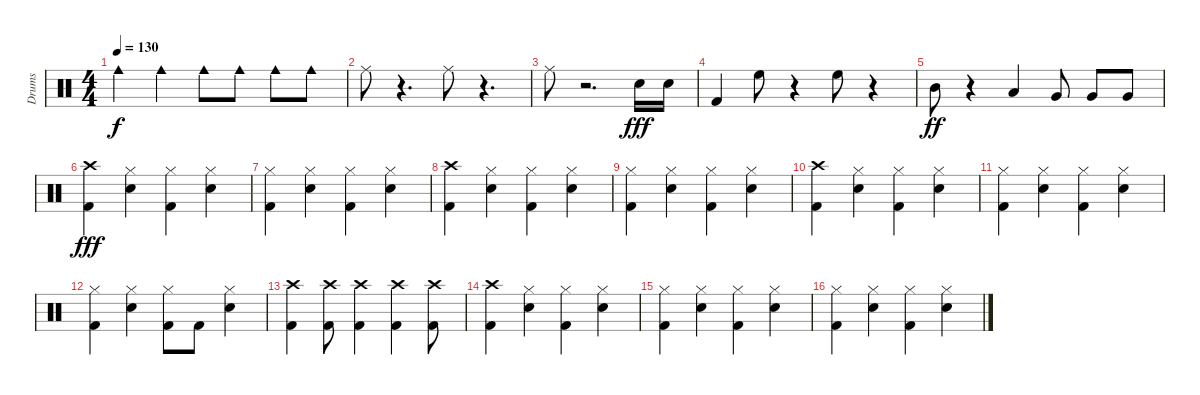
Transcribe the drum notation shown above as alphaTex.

\track ("Drums" "Drums") {instrument percussion}
\staff {score}
\articulation defaults
\ts (4 4)
\tempo 130
\clef neutral
\ks c "Cowbell medium (hit)".4{dy f} "Cowbell medium (hit)".4 "Cowbell medium (hit)".8 "Cowbell medium (hit)".8 "Cowbell medium (hit)".8 "Cowbell medium (hit)".8
|
"Ride (middle)".8 r.4{d} "Ride (middle)".8 r.4{d} |
"Ride (middle)".8 r.2{d} "Snare (hit) 2".16{dy fff} "Snare (hit) 2".16 |
"Kick (hit) 2".4 "High Floor Tom (hit)".8 r.4 "High Floor Tom (hit)".8 r.4 |
"Mid Tom (hit)".8{dy ff} r.4 "Low Tom (hit)".4 "Very Low Tom (hit)".8 "Very Low Tom (hit)".8 "Very Low Tom (hit)".8 |
("Kick (hit) 2" "Crash high (hit)").4{dy fff} ("Hi-Hat (closed)" "Snare (hit) 2").4 ("Kick (hit) 2" "Hi-Hat (closed)").4 ("Hi-Hat (closed)" "Snare (hit) 2").4 |
("Kick (hit) 2" "Hi-Hat (closed)").4 ("Hi-Hat (closed)" "Snare (hit) 2").4 ("Kick (hit) 2" "Hi-Hat (closed)").4 ("Hi-Hat (closed)" "Snare (hit) 2").4 |
("Kick (hit) 2" "Crash high (hit)").4 ("Hi-Hat (closed)" "Snare (hit) 2").4 ("Kick (hit) 2" "Hi-Hat (closed)").4 ("Hi-Hat (closed)" "Snare (hit) 2").4 |
("Kick (hit) 2" "Hi-Hat (closed)").4 ("Hi-Hat (closed)" "Snare (hit) 2").4 ("Kick (hit) 2" "Hi-Hat (closed)").4 ("Hi-Hat (closed)" "Snare (hit) 2").4 |
("Kick (hit) 2" "Crash high (hit)").4 ("Hi-Hat (closed)" "Snare (hit) 2").4 ("Kick (hit) 2" "Hi-Hat (closed)").4 ("Hi-Hat (closed)" "Snare (hit) 2").4 |
("Kick (hit) 2" "Hi-Hat (closed)").4 ("Hi-Hat (closed)" "Snare (hit) 2").4 ("Kick (hit) 2" "Hi-Hat (closed)").4 ("Hi-Hat (closed)" "Snare (hit) 2").4 |
("Kick (hit) 2" "Hi-Hat (closed)").4 ("Hi-Hat (closed)" "Snare (hit) 2").4 ("Kick (hit) 2" "Hi-Hat (closed)").8 "Kick (hit) 2".8 ("Hi-Hat (closed)" "Snare (hit) 2").4 |
("Kick (hit) 2" "Crash high (hit)").4 ("Kick (hit) 2" "Crash high (hit)").8 ("Crash high (hit)" "Kick (hit) 2").4 ("Kick (hit) 2" "Crash high (hit)").4 ("Kick (hit) 2" "Crash high (hit)").8 |
("Kick (hit) 2" "Crash high (hit)").4 ("Hi-Hat (closed)" "Snare (hit) 2").4 ("Kick (hit) 2" "Hi-Hat (closed)").4 ("Hi-Hat (closed)" "Snare (hit) 2").4 |
("Kick (hit) 2" "Hi-Hat (closed)").4 ("Hi-Hat (closed)" "Snare (hit) 2").4 ("Kick (hit) 2" "Hi-Hat (closed)").4 ("Hi-Hat (closed)" "Snare (hit) 2").4 |
("Kick (hit) 2" "Hi-Hat (closed)").4 ("Hi-Hat (closed)" "Snare (hit) 2").4 ("Kick (hit) 2" "Hi-Hat (closed)").4 ("Hi-Hat (closed)" "Snare (hit) 2").4
